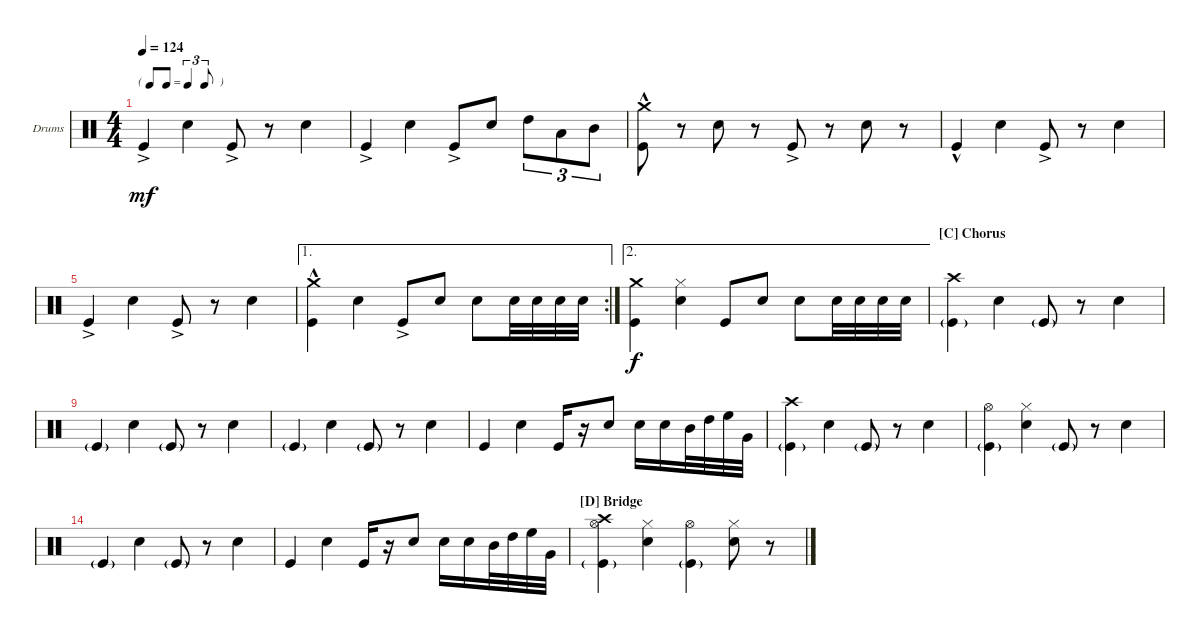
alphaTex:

\bracketExtendMode nobrackets
\firstSystemTrackNameOrientation horizontal
\otherSystemsTrackNameOrientation horizontal
\defaultBarNumberDisplay FirstOfSystem
\track ("Drumkit" "Drums") {instrument percussion}
\staff {score}
\articulation defaults
\ts (4 4)
\tf triplet8th
\tempo 124
\clef neutral
\ks c "Kick (hit)"{ac}.4{dy mf} "Snare (hit) 2".4 "Kick (hit)"{ac}.8
r.8 "Snare (hit) 2".4 |
"Kick (hit)"{ac}.4 "Snare (hit) 2".4 "Kick (hit)"{ac}.8 "Snare (hit) 2".8 "High Tom (hit)".8{tu (3 2)} "Low Tom (hit)".8{tu (3 2)} "Mid Tom (hit)".8{tu (3 2)} |
("Kick (hit)"{hac} "Crash medium (hit)"{hac}).8 r.8 "Snare (hit) 2".8 r.8 "Kick (hit)"{ac}.8 r.8 "Snare (hit) 2".8 r.8 |
"Kick (hit)"{hac}.4 "Snare (hit) 2".4 "Kick (hit)"{ac}.8 r.8 "Snare (hit) 2".4 |
"Kick (hit)"{ac}.4 "Snare (hit) 2".4 "Kick (hit)"{ac}.8 r.8 "Snare (hit) 2".4 |
\ae 1
\rc 2
("Kick (hit)"{hac} "Crash medium (hit)"{hac}).4 "Snare (hit) 2".4 "Kick (hit)"{ac}.8 "Snare (hit) 2".8 "Snare (hit) 2".8 "Snare (hit) 2".32 "Snare (hit) 2".32 "Snare (hit) 2".32 "Snare (hit) 2".32 |
\ae 2
("Kick (hit)" "Crash medium (hit)").4{dy f} ("Snare (hit) 2" "Hi-Hat (closed)").4 "Kick (hit)".8 "Snare (hit) 2".8 "Snare (hit) 2".8 "Snare (hit) 2".32 "Snare (hit) 2".32 "Snare (hit) 2".32 "Snare (hit) 2".32 |
\section ("C" "Chorus")
("Kick (hit)"{g} "Crash high (hit)").4 "Snare (hit) 2".4 "Kick (hit)"{g}.8 r.8 "Snare (hit) 2".4 |
"Kick (hit)"{g}.4 "Snare (hit) 2".4 "Kick (hit)"{g}.8 r.8 "Snare (hit) 2".4 |
"Kick (hit)"{g}.4 "Snare (hit) 2".4 "Kick (hit)"{g}.8 r.8 "Snare (hit) 2".4 |
"Kick (hit)".4 "Snare (hit) 2".4 "Kick (hit)".16 r.16 "Snare (hit) 2".8 "Snare (hit) 2".16 "Snare (hit) 2".16 "Mid Tom (hit)".32 "High Tom (hit)".32 "High Floor Tom (hit)".32 "Very Low Tom (hit)".32 |
("Kick (hit)"{g} "Crash high (hit)").4 "Snare (hit) 2".4 "Kick (hit)"{g}.8 r.8 "Snare (hit) 2".4 |
("Kick (hit)"{g} "Hi-Hat (open)").4 ("Snare (hit) 2" "Hi-Hat (closed)").4 "Kick (hit)"{g}.8 r.8 "Snare (hit) 2".4 |
"Kick (hit)"{g}.4 "Snare (hit) 2".4 "Kick (hit)"{g}.8 r.8 "Snare (hit) 2".4 |
"Kick (hit)".4 "Snare (hit) 2".4 "Kick (hit)".16 r.16 "Snare (hit) 2".8 "Snare (hit) 2".16 "Snare (hit) 2".16 "Mid Tom (hit)".32 "High Tom (hit)".32 "High Floor Tom (hit)".32 "Very Low Tom (hit)".32 |
\section ("D" "Bridge")
("Kick (hit)"{g} "Crash high (hit)" "Hi-Hat (open)").4 ("Snare (hit) 2" "Hi-Hat (closed)").4 ("Kick (hit)"{g} "Hi-Hat (open)").4 ("Snare (hit) 2" "Hi-Hat (closed)").8 r.8
